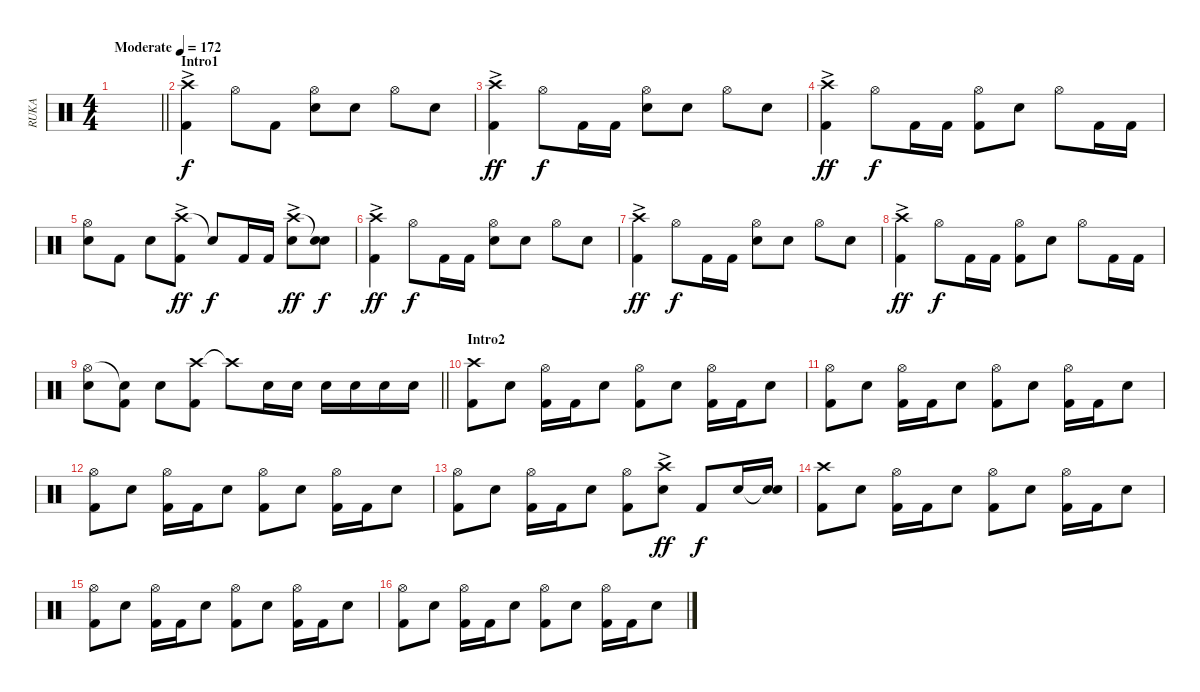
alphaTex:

\track ("RUKA" "RUKA") {instrument percussion}
\staff {score}
\articulation defaults
\ts (4 4)
\tempo (172 "Moderate")
\clef neutral
\barLineRight lightlight
\ks c
|
\section ("" "Intro1")
("Crash high (hit)"{ac} "Kick (hit) 2").4 "Hi-Hat (open)".8{dy f} "Kick (hit) 2".8 ("Hi-Hat (open)" "Snare (hit) 2").8 "Snare (hit) 2".8 "Hi-Hat (open)".8 "Snare (hit) 2".8 |
("Crash high (hit)"{ac} "Kick (hit) 2").4{dy ff} "Hi-Hat (open)".8{dy f} "Kick (hit) 2".16 "Kick (hit) 2".16 ("Hi-Hat (open)" "Snare (hit) 2").8 "Snare (hit) 2".8 "Hi-Hat (open)".8 "Snare (hit) 2".8 |
("Crash high (hit)"{ac} "Kick (hit) 2").4{dy ff} "Hi-Hat (open)".8{dy f} "Kick (hit) 2".16 "Kick (hit) 2".16 ("Hi-Hat (open)" "Kick (hit) 2").8 "Snare (hit) 2".8 "Hi-Hat (open)".8 "Kick (hit) 2".16 "Kick (hit) 2".16 |
("Hi-Hat (open)" "Snare (hit) 2").8 "Kick (hit) 2".8 "Snare (hit) 2".8 ("Crash high (hit)"{ac} "Kick (hit) 2").8{dy ff} "Snare (hit)"{t}.8{dy f} "Kick (hit) 2".16 "Kick (hit) 2".16 ("Crash high (hit)"{ac} "Snare (hit) 2").8{dy ff} ("Snare (hit)"{t} "Snare (hit) 2").8{dy f} |
("Crash high (hit)"{ac} "Kick (hit) 2").4{dy ff} "Hi-Hat (open)".8{dy f} "Kick (hit) 2".16 "Kick (hit) 2".16 ("Hi-Hat (open)" "Snare (hit) 2").8 "Snare (hit) 2".8 "Hi-Hat (open)".8 "Snare (hit) 2".8 |
("Crash high (hit)"{ac} "Kick (hit) 2").4{dy ff} "Hi-Hat (open)".8{dy f} "Kick (hit) 2".16 "Kick (hit) 2".16 ("Hi-Hat (open)" "Snare (hit) 2").8 "Snare (hit) 2".8 "Hi-Hat (open)".8 "Snare (hit) 2".8 |
("Crash high (hit)"{ac} "Kick (hit) 2").4{dy ff} "Hi-Hat (open)".8{dy f} "Kick (hit) 2".16 "Kick (hit) 2".16 ("Hi-Hat (open)" "Kick (hit) 2").8 "Snare (hit) 2".8 "Hi-Hat (open)".8 "Kick (hit) 2".16 "Kick (hit) 2".16 |
\barLineRight lightlight
("Hi-Hat (open)" "Snare (hit) 2").8 ("Snare (hit)"{t} "Kick (hit) 2").8 "Snare (hit) 2".8 ("Crash high (hit)" "Kick (hit) 2").8 "Crash high (hit)"{t}.8 "Snare (hit) 2".16 "Snare (hit) 2".16 "Snare (hit) 2".16 "Snare (hit) 2".16 "Snare (hit) 2".16 "Snare (hit) 2".16 |
\section ("" "Intro2")
("Crash high (hit)" "Kick (hit) 2").8 "Snare (hit) 2".8 ("Hi-Hat (open)" "Kick (hit) 2").16 "Kick (hit) 2".16 "Snare (hit) 2".8 ("Hi-Hat (open)" "Kick (hit) 2").8 "Snare (hit) 2".8 ("Hi-Hat (open)" "Kick (hit) 2").16 "Kick (hit) 2".16 "Snare (hit) 2".8 |
("Hi-Hat (open)" "Kick (hit) 2").8 "Snare (hit) 2".8 ("Hi-Hat (open)" "Kick (hit) 2").16 "Kick (hit) 2".16 "Snare (hit) 2".8 ("Hi-Hat (open)" "Kick (hit) 2").8 "Snare (hit) 2".8 ("Hi-Hat (open)" "Kick (hit) 2").16 "Kick (hit) 2".16 "Snare (hit) 2".8 |
("Hi-Hat (open)" "Kick (hit) 2").8 "Snare (hit) 2".8 ("Hi-Hat (open)" "Kick (hit) 2").16 "Kick (hit) 2".16 "Snare (hit) 2".8 ("Hi-Hat (open)" "Kick (hit) 2").8 "Snare (hit) 2".8 ("Hi-Hat (open)" "Kick (hit) 2").16 "Kick (hit) 2".16 "Snare (hit) 2".8 |
("Hi-Hat (open)" "Kick (hit) 2").8 "Snare (hit) 2".8 ("Hi-Hat (open)" "Kick (hit) 2").16 "Kick (hit) 2".16 "Snare (hit) 2".8 ("Hi-Hat (open)" "Kick (hit) 2").8 ("Crash high (hit)"{ac} "Snare (hit) 2").8{dy ff} "Kick (hit) 2".8{dy f} "Snare (hit) 2".16 ("Snare (hit)"{t} "Snare (hit) 2").16 |
("Crash high (hit)" "Kick (hit) 2").8 "Snare (hit) 2".8 ("Hi-Hat (open)" "Kick (hit) 2").16 "Kick (hit) 2".16 "Snare (hit) 2".8 ("Hi-Hat (open)" "Kick (hit) 2").8 "Snare (hit) 2".8 ("Hi-Hat (open)" "Kick (hit) 2").16 "Kick (hit) 2".16 "Snare (hit) 2".8 |
("Hi-Hat (open)" "Kick (hit) 2").8 "Snare (hit) 2".8 ("Hi-Hat (open)" "Kick (hit) 2").16 "Kick (hit) 2".16 "Snare (hit) 2".8 ("Hi-Hat (open)" "Kick (hit) 2").8 "Snare (hit) 2".8 ("Hi-Hat (open)" "Kick (hit) 2").16 "Kick (hit) 2".16 "Snare (hit) 2".8 |
("Hi-Hat (open)" "Kick (hit) 2").8 "Snare (hit) 2".8 ("Hi-Hat (open)" "Kick (hit) 2").16 "Kick (hit) 2".16 "Snare (hit) 2".8 ("Hi-Hat (open)" "Kick (hit) 2").8 "Snare (hit) 2".8 ("Hi-Hat (open)" "Kick (hit) 2").16 "Kick (hit) 2".16 "Snare (hit) 2".8
